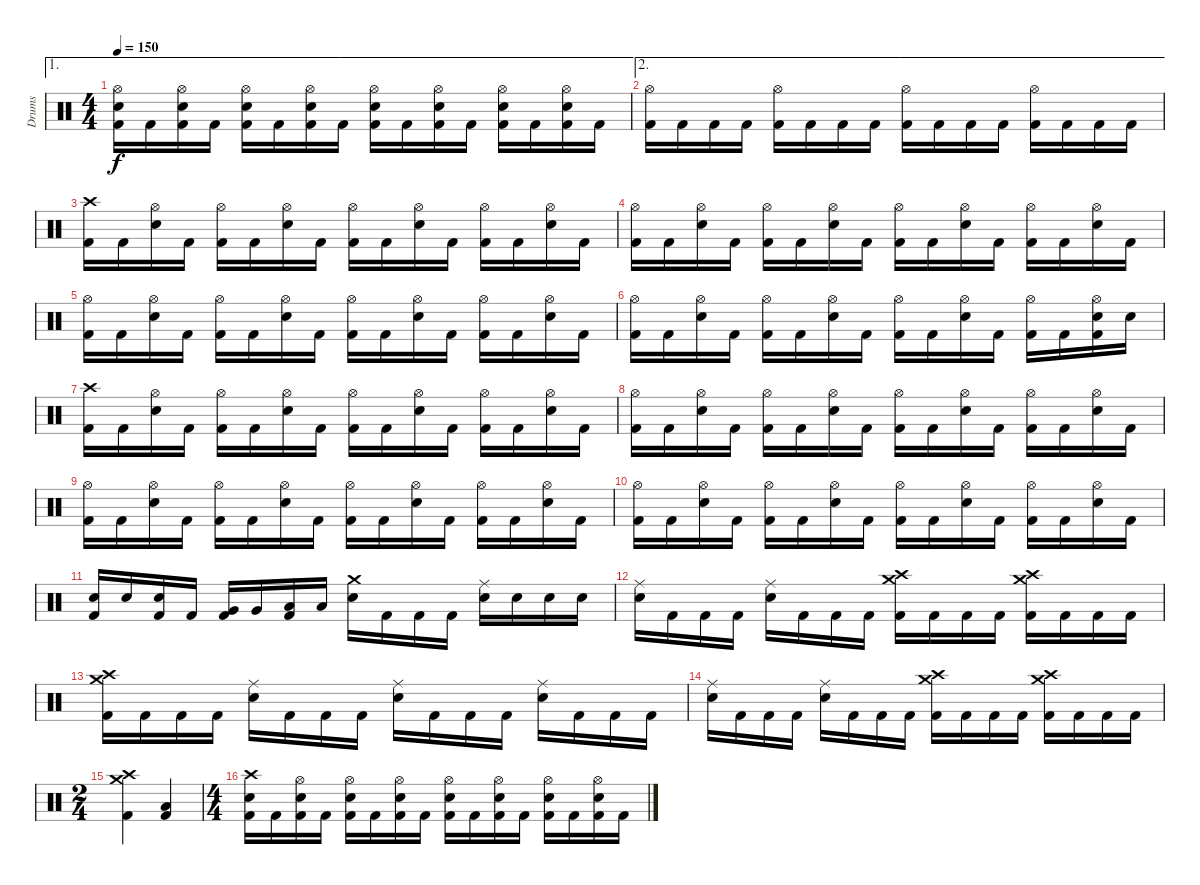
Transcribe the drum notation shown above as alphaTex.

\track ("Drums" "Drums") {instrument percussion}
\staff {score}
\articulation defaults
\ae 1
\ts (4 4)
\tempo 150
\clef neutral
\ks c
("Hi-Hat (open)" "Electric Snare (hit)" "Kick (hit) 2").16{dy f} "Kick (hit) 2".16 ("Hi-Hat (open)" "Electric Snare (hit)" "Kick (hit) 2").16 "Kick (hit) 2".16 ("Hi-Hat (open)" "Electric Snare (hit)" "Kick (hit) 2").16 "Kick (hit) 2".16 ("Hi-Hat (open)" "Electric Snare (hit)" "Kick (hit) 2").16 "Kick (hit) 2".16 ("Hi-Hat (open)" "Electric Snare (hit)" "Kick (hit) 2").16 "Kick (hit) 2".16 ("Hi-Hat (open)" "Electric Snare (hit)" "Kick (hit) 2").16 "Kick (hit) 2".16 ("Hi-Hat (open)" "Electric Snare (hit)" "Kick (hit) 2").16 "Kick (hit) 2".16 ("Hi-Hat (open)" "Electric Snare (hit)" "Kick (hit) 2").16 "Kick (hit) 2".16 |
\ae 2
("Hi-Hat (open)" "Kick (hit) 2").16 "Kick (hit) 2".16 "Kick (hit) 2".16 "Kick (hit) 2".16 ("Hi-Hat (open)" "Kick (hit) 2").16 "Kick (hit) 2".16 "Kick (hit) 2".16 "Kick (hit) 2".16 ("Hi-Hat (open)" "Kick (hit) 2").16 "Kick (hit) 2".16 "Kick (hit) 2".16 "Kick (hit) 2".16 ("Hi-Hat (open)" "Kick (hit) 2").16 "Kick (hit) 2".16 "Kick (hit) 2".16 "Kick (hit) 2".16 |
("Crash high (hit)" "Kick (hit) 2").16 "Kick (hit) 2".16 ("Hi-Hat (open)" "Electric Snare (hit)").16 "Kick (hit) 2".16 ("Hi-Hat (open)" "Kick (hit) 2").16 "Kick (hit) 2".16 ("Hi-Hat (open)" "Electric Snare (hit)").16 "Kick (hit) 2".16 ("Hi-Hat (open)" "Kick (hit) 2").16 "Kick (hit) 2".16 ("Hi-Hat (open)" "Electric Snare (hit)").16 "Kick (hit) 2".16 ("Hi-Hat (open)" "Kick (hit) 2").16 "Kick (hit) 2".16 ("Hi-Hat (open)" "Electric Snare (hit)").16 "Kick (hit) 2".16 |
("Hi-Hat (open)" "Kick (hit) 2").16 "Kick (hit) 2".16 ("Hi-Hat (open)" "Electric Snare (hit)").16 "Kick (hit) 2".16 ("Hi-Hat (open)" "Kick (hit) 2").16 "Kick (hit) 2".16 ("Hi-Hat (open)" "Electric Snare (hit)").16 "Kick (hit) 2".16 ("Hi-Hat (open)" "Kick (hit) 2").16 "Kick (hit) 2".16 ("Hi-Hat (open)" "Electric Snare (hit)").16 "Kick (hit) 2".16 ("Hi-Hat (open)" "Kick (hit) 2").16 "Kick (hit) 2".16 ("Hi-Hat (open)" "Electric Snare (hit)").16 "Kick (hit) 2".16 |
("Hi-Hat (open)" "Kick (hit) 2").16 "Kick (hit) 2".16 ("Hi-Hat (open)" "Electric Snare (hit)").16 "Kick (hit) 2".16 ("Hi-Hat (open)" "Kick (hit) 2").16 "Kick (hit) 2".16 ("Hi-Hat (open)" "Electric Snare (hit)").16 "Kick (hit) 2".16 ("Hi-Hat (open)" "Kick (hit) 2").16 "Kick (hit) 2".16 ("Hi-Hat (open)" "Electric Snare (hit)").16 "Kick (hit) 2".16 ("Hi-Hat (open)" "Kick (hit) 2").16 "Kick (hit) 2".16 ("Hi-Hat (open)" "Electric Snare (hit)").16 "Kick (hit) 2".16 |
("Hi-Hat (open)" "Kick (hit) 2").16 "Kick (hit) 2".16 ("Hi-Hat (open)" "Electric Snare (hit)").16 "Kick (hit) 2".16 ("Hi-Hat (open)" "Kick (hit) 2").16 "Kick (hit) 2".16 ("Hi-Hat (open)" "Electric Snare (hit)").16 "Kick (hit) 2".16 ("Hi-Hat (open)" "Kick (hit) 2").16 "Kick (hit) 2".16 ("Hi-Hat (open)" "Electric Snare (hit)").16 "Kick (hit) 2".16 ("Hi-Hat (open)" "Kick (hit) 2").16 "Kick (hit) 2".16 ("Hi-Hat (open)" "Electric Snare (hit)" "Kick (hit) 2").16 "Electric Snare (hit)".16 |
("Crash high (hit)" "Kick (hit) 2").16 "Kick (hit) 2".16 ("Hi-Hat (open)" "Electric Snare (hit)").16 "Kick (hit) 2".16 ("Hi-Hat (open)" "Kick (hit) 2").16 "Kick (hit) 2".16 ("Hi-Hat (open)" "Electric Snare (hit)").16 "Kick (hit) 2".16 ("Hi-Hat (open)" "Kick (hit) 2").16 "Kick (hit) 2".16 ("Hi-Hat (open)" "Electric Snare (hit)").16 "Kick (hit) 2".16 ("Hi-Hat (open)" "Kick (hit) 2").16 "Kick (hit) 2".16 ("Hi-Hat (open)" "Electric Snare (hit)").16 "Kick (hit) 2".16 |
("Hi-Hat (open)" "Kick (hit) 2").16 "Kick (hit) 2".16 ("Hi-Hat (open)" "Electric Snare (hit)").16 "Kick (hit) 2".16 ("Hi-Hat (open)" "Kick (hit) 2").16 "Kick (hit) 2".16 ("Hi-Hat (open)" "Electric Snare (hit)").16 "Kick (hit) 2".16 ("Hi-Hat (open)" "Kick (hit) 2").16 "Kick (hit) 2".16 ("Hi-Hat (open)" "Electric Snare (hit)").16 "Kick (hit) 2".16 ("Hi-Hat (open)" "Kick (hit) 2").16 "Kick (hit) 2".16 ("Hi-Hat (open)" "Electric Snare (hit)").16 "Kick (hit) 2".16 |
("Hi-Hat (open)" "Kick (hit) 2").16 "Kick (hit) 2".16 ("Hi-Hat (open)" "Electric Snare (hit)").16 "Kick (hit) 2".16 ("Hi-Hat (open)" "Kick (hit) 2").16 "Kick (hit) 2".16 ("Hi-Hat (open)" "Electric Snare (hit)").16 "Kick (hit) 2".16 ("Hi-Hat (open)" "Kick (hit) 2").16 "Kick (hit) 2".16 ("Hi-Hat (open)" "Electric Snare (hit)").16 "Kick (hit) 2".16 ("Hi-Hat (open)" "Kick (hit) 2").16 "Kick (hit) 2".16 ("Hi-Hat (open)" "Electric Snare (hit)").16 "Kick (hit) 2".16 |
("Hi-Hat (open)" "Kick (hit) 2").16 "Kick (hit) 2".16 ("Hi-Hat (open)" "Electric Snare (hit)").16 "Kick (hit) 2".16 ("Hi-Hat (open)" "Kick (hit) 2").16 "Kick (hit) 2".16 ("Hi-Hat (open)" "Electric Snare (hit)").16 "Kick (hit) 2".16 ("Hi-Hat (open)" "Kick (hit) 2").16 "Kick (hit) 2".16 ("Hi-Hat (open)" "Electric Snare (hit)").16 "Kick (hit) 2".16 ("Hi-Hat (open)" "Kick (hit) 2").16 "Kick (hit) 2".16 ("Hi-Hat (open)" "Electric Snare (hit)").16 "Kick (hit) 2".16 |
("Electric Snare (hit)" "Kick (hit) 2").16 "Electric Snare (hit)".16 ("Electric Snare (hit)" "Kick (hit) 2").16 "Kick (hit) 2".16 ("Very Low Tom (hit)" "Kick (hit) 2").16 "Very Low Tom (hit)".16 ("Low Floor Tom (hit)" "Kick (hit) 2").16 "Low Floor Tom (hit)".16 ("Crash medium (hit)" "Electric Snare (hit)").16 "Kick (hit) 2".16 "Kick (hit) 2".16 "Kick (hit) 2".16 ("Ride (middle)" "Electric Snare (hit)").16 "Electric Snare (hit)".16 "Electric Snare (hit)".16 "Electric Snare (hit)".16 |
("Ride (middle)" "Electric Snare (hit)").16 "Kick (hit) 2".16 "Kick (hit) 2".16 "Kick (hit) 2".16 ("Ride (middle)" "Electric Snare (hit)").16 "Kick (hit) 2".16 "Kick (hit) 2".16 "Kick (hit) 2".16 ("Crash medium (hit)" "Crash high (hit)" "Kick (hit) 2").16 "Kick (hit) 2".16 "Kick (hit) 2".16 "Kick (hit) 2".16 ("Crash medium (hit)" "Crash high (hit)" "Kick (hit) 2").16 "Kick (hit) 2".16 "Kick (hit) 2".16 "Kick (hit) 2".16 |
("Crash medium (hit)" "Crash high (hit)" "Kick (hit) 2").16 "Kick (hit) 2".16 "Kick (hit) 2".16 "Kick (hit) 2".16 ("Ride (middle)" "Electric Snare (hit)").16 "Kick (hit) 2".16 "Kick (hit) 2".16 "Kick (hit) 2".16 ("Ride (middle)" "Electric Snare (hit)").16 "Kick (hit) 2".16 "Kick (hit) 2".16 "Kick (hit) 2".16 ("Ride (middle)" "Electric Snare (hit)").16 "Kick (hit) 2".16 "Kick (hit) 2".16 "Kick (hit) 2".16 |
("Ride (middle)" "Electric Snare (hit)").16 "Kick (hit) 2".16 "Kick (hit) 2".16 "Kick (hit) 2".16 ("Ride (middle)" "Electric Snare (hit)").16 "Kick (hit) 2".16 "Kick (hit) 2".16 "Kick (hit) 2".16 ("Crash medium (hit)" "Crash high (hit)" "Kick (hit) 2").16 "Kick (hit) 2".16 "Kick (hit) 2".16 "Kick (hit) 2".16 ("Crash medium (hit)" "Crash high (hit)" "Kick (hit) 2").16 "Kick (hit) 2".16 "Kick (hit) 2".16 "Kick (hit) 2".16 |
\ts (2 4)
("Crash medium (hit)" "Crash high (hit)" "Kick (hit) 2").4 ("Low Floor Tom (hit)" "Kick (hit) 2").4 |
\ts (4 4)
("Crash high (hit)" "Electric Snare (hit)" "Kick (hit) 2").16 "Kick (hit) 2".16 ("Hi-Hat (open)" "Electric Snare (hit)" "Kick (hit) 2").16 "Kick (hit) 2".16 ("Hi-Hat (open)" "Electric Snare (hit)" "Kick (hit) 2").16 "Kick (hit) 2".16 ("Hi-Hat (open)" "Electric Snare (hit)" "Kick (hit) 2").16 "Kick (hit) 2".16 ("Hi-Hat (open)" "Electric Snare (hit)" "Kick (hit) 2").16 "Kick (hit) 2".16 ("Hi-Hat (open)" "Electric Snare (hit)" "Kick (hit) 2").16 "Kick (hit) 2".16 ("Hi-Hat (open)" "Electric Snare (hit)" "Kick (hit) 2").16 "Kick (hit) 2".16 ("Hi-Hat (open)" "Electric Snare (hit)" "Kick (hit) 2").16 "Kick (hit) 2".16
